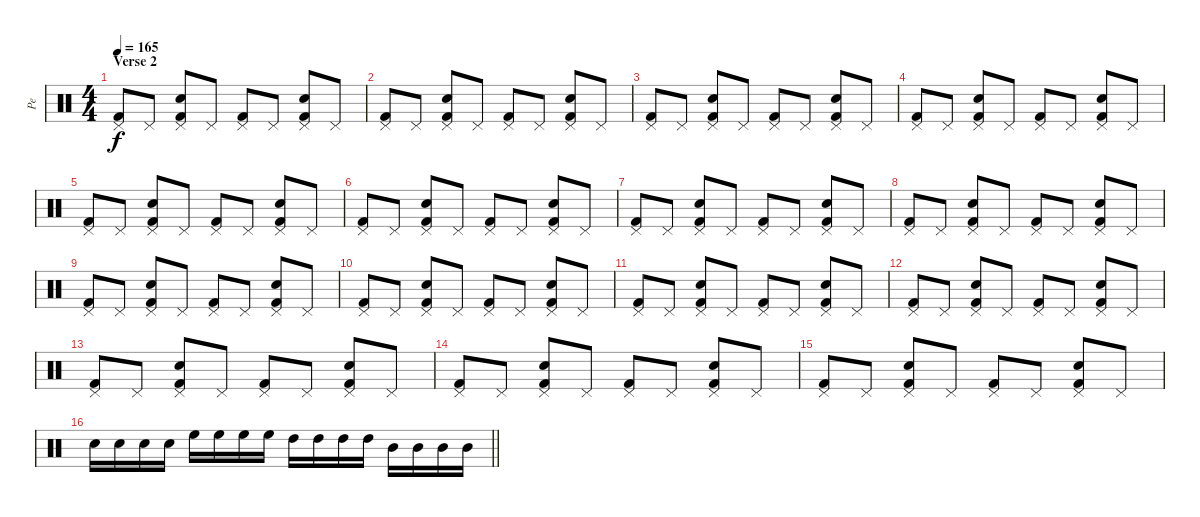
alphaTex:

\track ("Pe" "Pe") {instrument percussion}
\staff {score}
\articulation defaults
\ts (4 4)
\section ("" "Verse 2")
\tempo 165
\clef neutral
\ks c
("Pedal Hi-Hat (hit)" "Kick (hit) 2").8{dy f} "Pedal Hi-Hat (hit)".8 ("Electric Snare (hit)" "Pedal Hi-Hat (hit)" "Kick (hit) 2").8 "Pedal Hi-Hat (hit)".8 ("Pedal Hi-Hat (hit)" "Kick (hit) 2").8 "Pedal Hi-Hat (hit)".8 ("Electric Snare (hit)" "Pedal Hi-Hat (hit)" "Kick (hit) 2").8 "Pedal Hi-Hat (hit)".8 |
("Pedal Hi-Hat (hit)" "Kick (hit) 2").8 "Pedal Hi-Hat (hit)".8 ("Electric Snare (hit)" "Pedal Hi-Hat (hit)" "Kick (hit) 2").8 "Pedal Hi-Hat (hit)".8 ("Pedal Hi-Hat (hit)" "Kick (hit) 2").8 "Pedal Hi-Hat (hit)".8 ("Electric Snare (hit)" "Pedal Hi-Hat (hit)" "Kick (hit) 2").8 "Pedal Hi-Hat (hit)".8 |
("Pedal Hi-Hat (hit)" "Kick (hit) 2").8 "Pedal Hi-Hat (hit)".8 ("Electric Snare (hit)" "Pedal Hi-Hat (hit)" "Kick (hit) 2").8 "Pedal Hi-Hat (hit)".8 ("Pedal Hi-Hat (hit)" "Kick (hit) 2").8 "Pedal Hi-Hat (hit)".8 ("Electric Snare (hit)" "Pedal Hi-Hat (hit)" "Kick (hit) 2").8 "Pedal Hi-Hat (hit)".8 |
("Pedal Hi-Hat (hit)" "Kick (hit) 2").8 "Pedal Hi-Hat (hit)".8 ("Electric Snare (hit)" "Pedal Hi-Hat (hit)" "Kick (hit) 2").8 "Pedal Hi-Hat (hit)".8 ("Pedal Hi-Hat (hit)" "Kick (hit) 2").8 "Pedal Hi-Hat (hit)".8 ("Electric Snare (hit)" "Pedal Hi-Hat (hit)" "Kick (hit) 2").8 "Pedal Hi-Hat (hit)".8 |
("Pedal Hi-Hat (hit)" "Kick (hit) 2").8 "Pedal Hi-Hat (hit)".8 ("Electric Snare (hit)" "Pedal Hi-Hat (hit)" "Kick (hit) 2").8 "Pedal Hi-Hat (hit)".8 ("Pedal Hi-Hat (hit)" "Kick (hit) 2").8 "Pedal Hi-Hat (hit)".8 ("Electric Snare (hit)" "Pedal Hi-Hat (hit)" "Kick (hit) 2").8 "Pedal Hi-Hat (hit)".8 |
("Pedal Hi-Hat (hit)" "Kick (hit) 2").8 "Pedal Hi-Hat (hit)".8 ("Electric Snare (hit)" "Pedal Hi-Hat (hit)" "Kick (hit) 2").8 "Pedal Hi-Hat (hit)".8 ("Pedal Hi-Hat (hit)" "Kick (hit) 2").8 "Pedal Hi-Hat (hit)".8 ("Electric Snare (hit)" "Pedal Hi-Hat (hit)" "Kick (hit) 2").8 "Pedal Hi-Hat (hit)".8 |
("Pedal Hi-Hat (hit)" "Kick (hit) 2").8 "Pedal Hi-Hat (hit)".8 ("Electric Snare (hit)" "Pedal Hi-Hat (hit)" "Kick (hit) 2").8 "Pedal Hi-Hat (hit)".8 ("Pedal Hi-Hat (hit)" "Kick (hit) 2").8 "Pedal Hi-Hat (hit)".8 ("Electric Snare (hit)" "Pedal Hi-Hat (hit)" "Kick (hit) 2").8 "Pedal Hi-Hat (hit)".8 |
("Pedal Hi-Hat (hit)" "Kick (hit) 2").8 "Pedal Hi-Hat (hit)".8 ("Electric Snare (hit)" "Pedal Hi-Hat (hit)" "Kick (hit) 2").8 "Pedal Hi-Hat (hit)".8 ("Pedal Hi-Hat (hit)" "Kick (hit) 2").8 "Pedal Hi-Hat (hit)".8 ("Electric Snare (hit)" "Pedal Hi-Hat (hit)" "Kick (hit) 2").8 "Pedal Hi-Hat (hit)".8 |
("Pedal Hi-Hat (hit)" "Kick (hit) 2").8 "Pedal Hi-Hat (hit)".8 ("Electric Snare (hit)" "Pedal Hi-Hat (hit)" "Kick (hit) 2").8 "Pedal Hi-Hat (hit)".8 ("Pedal Hi-Hat (hit)" "Kick (hit) 2").8 "Pedal Hi-Hat (hit)".8 ("Electric Snare (hit)" "Pedal Hi-Hat (hit)" "Kick (hit) 2").8 "Pedal Hi-Hat (hit)".8 |
("Pedal Hi-Hat (hit)" "Kick (hit) 2").8 "Pedal Hi-Hat (hit)".8 ("Electric Snare (hit)" "Pedal Hi-Hat (hit)" "Kick (hit) 2").8 "Pedal Hi-Hat (hit)".8 ("Pedal Hi-Hat (hit)" "Kick (hit) 2").8 "Pedal Hi-Hat (hit)".8 ("Electric Snare (hit)" "Pedal Hi-Hat (hit)" "Kick (hit) 2").8 "Pedal Hi-Hat (hit)".8 |
("Pedal Hi-Hat (hit)" "Kick (hit) 2").8 "Pedal Hi-Hat (hit)".8 ("Electric Snare (hit)" "Pedal Hi-Hat (hit)" "Kick (hit) 2").8 "Pedal Hi-Hat (hit)".8 ("Pedal Hi-Hat (hit)" "Kick (hit) 2").8 "Pedal Hi-Hat (hit)".8 ("Electric Snare (hit)" "Pedal Hi-Hat (hit)" "Kick (hit) 2").8 "Pedal Hi-Hat (hit)".8 |
("Pedal Hi-Hat (hit)" "Kick (hit) 2").8 "Pedal Hi-Hat (hit)".8 ("Electric Snare (hit)" "Pedal Hi-Hat (hit)" "Kick (hit) 2").8 "Pedal Hi-Hat (hit)".8 ("Pedal Hi-Hat (hit)" "Kick (hit) 2").8 "Pedal Hi-Hat (hit)".8 ("Electric Snare (hit)" "Pedal Hi-Hat (hit)" "Kick (hit) 2").8 "Pedal Hi-Hat (hit)".8 |
("Pedal Hi-Hat (hit)" "Kick (hit) 2").8 "Pedal Hi-Hat (hit)".8 ("Electric Snare (hit)" "Pedal Hi-Hat (hit)" "Kick (hit) 2").8 "Pedal Hi-Hat (hit)".8 ("Pedal Hi-Hat (hit)" "Kick (hit) 2").8 "Pedal Hi-Hat (hit)".8 ("Electric Snare (hit)" "Pedal Hi-Hat (hit)" "Kick (hit) 2").8 "Pedal Hi-Hat (hit)".8 |
("Pedal Hi-Hat (hit)" "Kick (hit) 2").8 "Pedal Hi-Hat (hit)".8 ("Electric Snare (hit)" "Pedal Hi-Hat (hit)" "Kick (hit) 2").8 "Pedal Hi-Hat (hit)".8 ("Pedal Hi-Hat (hit)" "Kick (hit) 2").8 "Pedal Hi-Hat (hit)".8 ("Electric Snare (hit)" "Pedal Hi-Hat (hit)" "Kick (hit) 2").8 "Pedal Hi-Hat (hit)".8 |
("Pedal Hi-Hat (hit)" "Kick (hit) 2").8 "Pedal Hi-Hat (hit)".8 ("Electric Snare (hit)" "Pedal Hi-Hat (hit)" "Kick (hit) 2").8 "Pedal Hi-Hat (hit)".8 ("Pedal Hi-Hat (hit)" "Kick (hit) 2").8 "Pedal Hi-Hat (hit)".8 ("Electric Snare (hit)" "Pedal Hi-Hat (hit)" "Kick (hit) 2").8 "Pedal Hi-Hat (hit)".8 |
\barLineRight lightlight "Electric Snare (hit)".16 "Electric Snare (hit)".16 "Electric Snare (hit)".16 "Electric Snare (hit)".16 "High Floor Tom (hit)".16 "High Floor Tom (hit)".16 "High Floor Tom (hit)".16 "High Floor Tom (hit)".16 "High Tom (hit)".16 "High Tom (hit)".16 "High Tom (hit)".16 "High Tom (hit)".16 "Mid Tom (hit)".16 "Mid Tom (hit)".16 "Mid Tom (hit)".16 "Mid Tom (hit)".16
